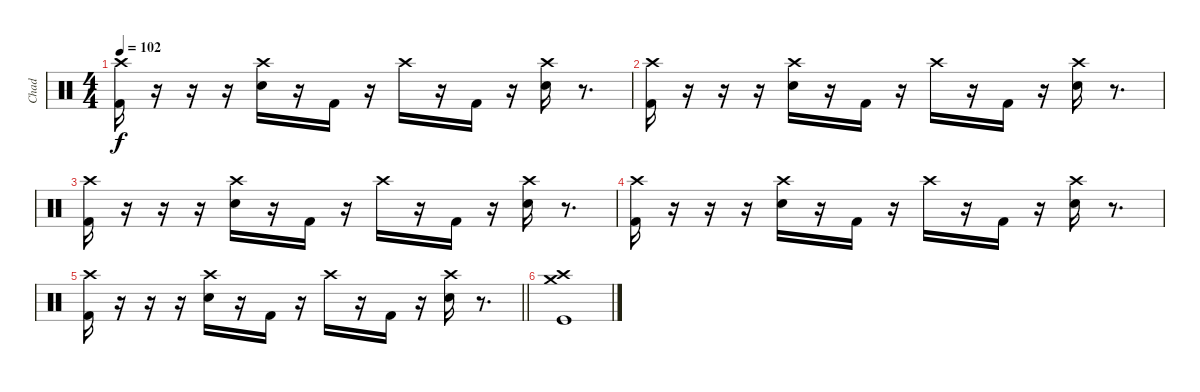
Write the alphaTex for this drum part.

\track ("Chad" "Chad") {instrument percussion}
\staff {score}
\articulation defaults
\ts (4 4)
\tempo 102
\clef neutral
\ks c
("Crash high (hit)" "Kick (hit) 2").16{dy f} r.16 r.16 r.16 ("Crash high (hit)" "Electric Snare (hit)").16 r.16 "Kick (hit) 2".16 r.16 "Crash high (hit)".16 r.16 "Kick (hit) 2".16 r.16 ("Crash high (hit)" "Electric Snare (hit)").16 r.8{d} |
("Crash high (hit)" "Kick (hit) 2").16 r.16 r.16 r.16 ("Crash high (hit)" "Electric Snare (hit)").16 r.16 "Kick (hit) 2".16 r.16 "Crash high (hit)".16 r.16 "Kick (hit) 2".16 r.16 ("Crash high (hit)" "Electric Snare (hit)").16 r.8{d} |
("Crash high (hit)" "Kick (hit) 2").16 r.16 r.16 r.16 ("Crash high (hit)" "Electric Snare (hit)").16 r.16 "Kick (hit) 2".16 r.16 "Crash high (hit)".16 r.16 "Kick (hit) 2".16 r.16 ("Crash high (hit)" "Electric Snare (hit)").16 r.8{d} |
("Crash high (hit)" "Kick (hit) 2").16 r.16 r.16 r.16 ("Crash high (hit)" "Electric Snare (hit)").16 r.16 "Kick (hit) 2".16 r.16 "Crash high (hit)".16 r.16 "Kick (hit) 2".16 r.16 ("Crash high (hit)" "Electric Snare (hit)").16 r.8{d} |
\barLineRight lightlight
("Crash high (hit)" "Kick (hit) 2").16 r.16 r.16 r.16 ("Crash high (hit)" "Electric Snare (hit)").16 r.16 "Kick (hit) 2".16 r.16 "Crash high (hit)".16 r.16 "Kick (hit) 2".16 r.16 ("Crash high (hit)" "Electric Snare (hit)").16 r.8{d} |
("Crash medium (hit)" "Crash high (hit)" "Kick (hit)").1
